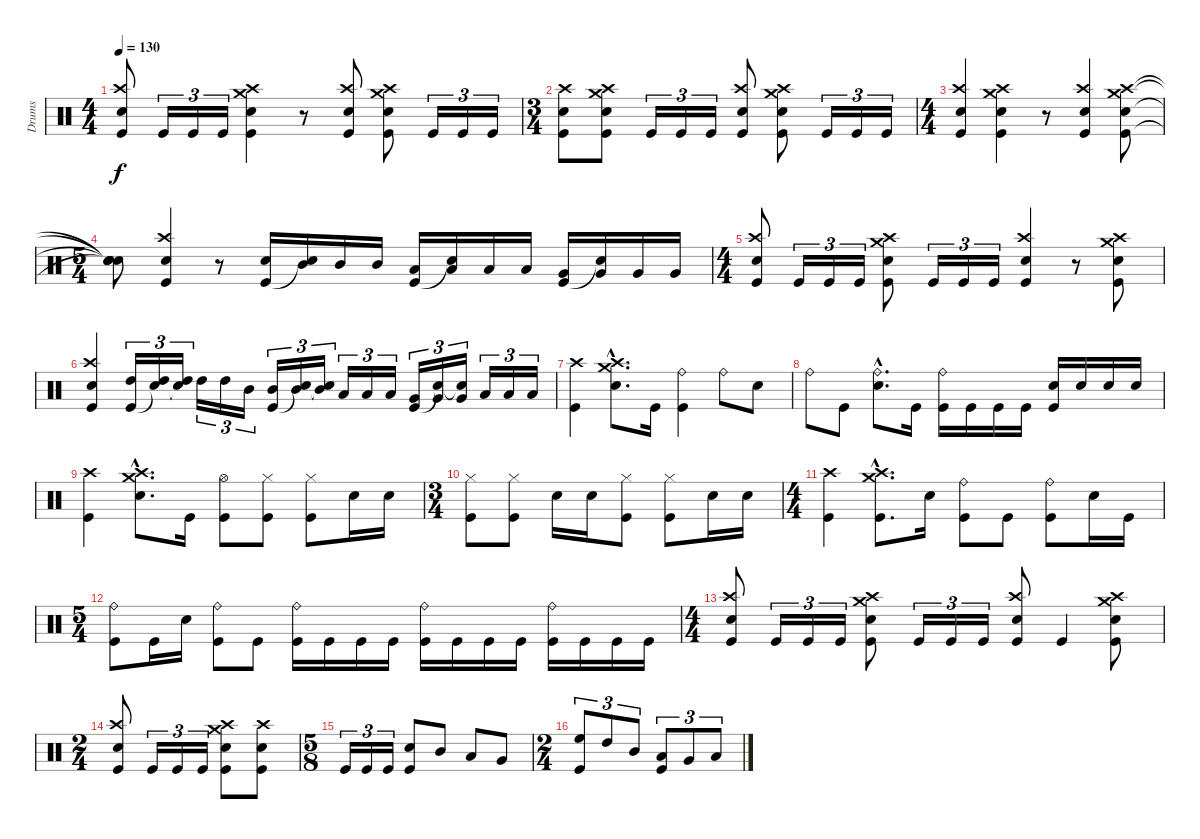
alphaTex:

\track ("Drums" "Drums") {instrument percussion}
\staff {score}
\articulation defaults
\ts (4 4)
\tempo 130
\clef neutral
\ks c
("Electric Snare (hit)" "Crash high (hit)" "Kick (hit)").8{dy f} "Kick (hit)".16{tu (3 2)} "Kick (hit)".16{tu (3 2)} "Kick (hit)".16{tu (3 2)} ("Electric Snare (hit)" "Crash medium (hit)" "Crash high (hit)" "Kick (hit)").4 r.8 ("Electric Snare (hit)" "Crash high (hit)" "Kick (hit)").8 ("Electric Snare (hit)" "Crash medium (hit)" "Crash high (hit)" "Kick (hit)").8 "Kick (hit)".16{tu (3 2)} "Kick (hit)".16{tu (3 2)} "Kick (hit)".16{tu (3 2)} |
\ts (3 4)
("Electric Snare (hit)" "Crash high (hit)" "Kick (hit)").8 ("Electric Snare (hit)" "Crash medium (hit)" "Crash high (hit)" "Kick (hit)").8 "Kick (hit)".16{tu (3 2)} "Kick (hit)".16{tu (3 2)} "Kick (hit)".16{tu (3 2)} ("Electric Snare (hit)" "Crash high (hit)" "Kick (hit)").8 ("Electric Snare (hit)" "Crash medium (hit)" "Crash high (hit)" "Kick (hit)").8 "Kick (hit)".16{tu (3 2)} "Kick (hit)".16{tu (3 2)} "Kick (hit)".16{tu (3 2)} |
\ts (4 4)
("Electric Snare (hit)" "Crash high (hit)" "Kick (hit)").4 ("Electric Snare (hit)" "Crash medium (hit)" "Crash high (hit)" "Kick (hit)").4 r.8 ("Electric Snare (hit)" "Crash high (hit)" "Kick (hit)").4 ("Electric Snare (hit)" "Crash medium (hit)" "Crash high (hit)" "Kick (hit)").8 |
\ts (5 4)
("Snare (hit)"{t} "Snare (hit)"{t} "Snare (hit)"{t} "Snare (hit)"{t}).8 ("Electric Snare (hit)" "Crash high (hit)" "Kick (hit)").4 r.8 ("Electric Snare (hit)" "Kick (hit)").16 ("Mid Tom (hit)" "Snare (hit)"{t}).16 "Mid Tom (hit)".16 "Mid Tom (hit)".16 ("Low Tom (hit)" "Kick (hit)").16 ("Low Tom (hit)" "Snare (hit)"{t}).16 "Low Tom (hit)".16 "Low Tom (hit)".16 ("Very Low Tom (hit)" "Kick (hit)").16 ("Very Low Tom (hit)" "Snare (hit)"{t}).16 "Very Low Tom (hit)".16 "Very Low Tom (hit)".16 |
\ts (4 4)
("Electric Snare (hit)" "Crash high (hit)" "Kick (hit)").8 "Kick (hit)".16{tu (3 2)} "Kick (hit)".16{tu (3 2)} "Kick (hit)".16{tu (3 2)} ("Electric Snare (hit)" "Crash medium (hit)" "Crash high (hit)" "Kick (hit)").8 "Kick (hit)".16{tu (3 2)} "Kick (hit)".16{tu (3 2)} "Kick (hit)".16{tu (3 2)} ("Electric Snare (hit)" "Crash high (hit)" "Kick (hit)").4 r.8 ("Electric Snare (hit)" "Crash medium (hit)" "Crash high (hit)" "Kick (hit)").8 |
("Electric Snare (hit)" "Crash high (hit)" "Kick (hit)").4 ("High Tom (hit)" "Kick (hit)").16{tu (3 2)} ("High Tom (hit)" "Snare (hit)"{t}).16{tu (3 2)} ("High Tom (hit)" "Snare (hit)"{t}).16{tu (3 2)} "High Tom (hit)".16{tu (3 2)} "High Tom (hit)".16{tu (3 2)} "Mid Tom (hit)".16{tu (3 2)} ("Mid Tom (hit)" "Kick (hit)").16{tu (3 2)} ("Mid Tom (hit)" "Snare (hit)"{t}).16{tu (3 2)} ("Mid Tom (hit)" "Snare (hit)"{t}).16{tu (3 2)} "Low Tom (hit)".16{tu (3 2)} "Low Tom (hit)".16{tu (3 2)} "Low Tom (hit)".16{tu (3 2)} ("Very Low Tom (hit)" "Kick (hit)").16{tu (3 2)} ("Very Low Tom (hit)" "Snare (hit)"{t}).16{tu (3 2)} ("Very Low Tom (hit)" "Snare (hit)"{t}).16{tu (3 2)} "Low Floor Tom (hit)".16{tu (3 2)} "Low Floor Tom (hit)".16{tu (3 2)} "Low Floor Tom (hit)".16{tu (3 2)} |
("Crash high (hit)" "Kick (hit)").4 ("Electric Snare (hit)"{hac} "Crash medium (hit)"{hac} "Crash high (hit)"{hac}).8{d} "Kick (hit)".16 ("Ride (bell)" "Kick (hit)").4 "Ride (bell)".8 "Electric Snare (hit)".8 |
"Ride (bell)".8 "Kick (hit)".8 ("Electric Snare (hit)"{hac} "Ride (bell)"{hac}).8{d} "Kick (hit)".16 ("Ride (bell)" "Kick (hit)").16 "Kick (hit)".16 "Kick (hit)".16 "Kick (hit)".16 ("Electric Snare (hit)" "Kick (hit)").16 "Electric Snare (hit)".16 "Electric Snare (hit)".16 "Electric Snare (hit)".16 |
("Crash high (hit)" "Kick (hit)").4 ("Electric Snare (hit)"{hac} "Crash medium (hit)"{hac} "Crash high (hit)"{hac}).8{d} "Kick (hit)".16 ("Hi-Hat (open)" "Kick (hit)").8 ("Hi-Hat (closed)" "Kick (hit)").8 ("Hi-Hat (closed)" "Kick (hit)").8 "Electric Snare (hit)".16 "Electric Snare (hit)".16 |
\ts (3 4)
("Hi-Hat (closed)" "Kick (hit)").8 ("Hi-Hat (closed)" "Kick (hit)").8 "Electric Snare (hit)".16 "Electric Snare (hit)".16 ("Hi-Hat (closed)" "Kick (hit)").8 ("Hi-Hat (closed)" "Kick (hit)").8 "Electric Snare (hit)".16 "Electric Snare (hit)".16 |
\ts (4 4)
("Crash high (hit)" "Kick (hit)").4 ("Crash medium (hit)"{hac} "Crash high (hit)"{hac} "Kick (hit)"{hac}).8{d} "Electric Snare (hit)".16 ("Ride (bell)" "Kick (hit)").8 "Kick (hit)".8 ("Ride (bell)" "Kick (hit)").8 "Electric Snare (hit)".16 "Kick (hit)".16 |
\ts (5 4)
("Ride (bell)" "Kick (hit)").8 "Kick (hit)".16 "Electric Snare (hit)".16 ("Ride (bell)" "Kick (hit)").8 "Kick (hit)".8 ("Ride (bell)" "Kick (hit)").16 "Kick (hit)".16 "Kick (hit)".16 "Kick (hit)".16 ("Ride (bell)" "Kick (hit)").16 "Kick (hit)".16 "Kick (hit)".16 "Kick (hit)".16 ("Ride (bell)" "Kick (hit)").16 "Kick (hit)".16 "Kick (hit)".16 "Kick (hit)".16 |
\ts (4 4)
("Electric Snare (hit)" "Crash high (hit)" "Kick (hit)").8 "Kick (hit)".16{tu (3 2)} "Kick (hit)".16{tu (3 2)} "Kick (hit)".16{tu (3 2)} ("Electric Snare (hit)" "Crash medium (hit)" "Crash high (hit)" "Kick (hit)").8 "Kick (hit)".16{tu (3 2)} "Kick (hit)".16{tu (3 2)} "Kick (hit)".16{tu (3 2)} ("Electric Snare (hit)" "Crash high (hit)" "Kick (hit)").8 "Kick (hit)".4 ("Electric Snare (hit)" "Crash medium (hit)" "Crash high (hit)" "Kick (hit)").8 |
\ts (2 4)
("Electric Snare (hit)" "Crash high (hit)" "Kick (hit)").8 "Kick (hit)".16{tu (3 2)} "Kick (hit)".16{tu (3 2)} "Kick (hit)".16{tu (3 2)} ("Electric Snare (hit)" "Crash medium (hit)" "Crash high (hit)" "Kick (hit)").8 ("Electric Snare (hit)" "Crash high (hit)" "Kick (hit)").8 |
\ts (5 8)
"Kick (hit)".16{tu (3 2)} "Kick (hit)".16{tu (3 2)} "Kick (hit)".16{tu (3 2)} ("Electric Snare (hit)" "Kick (hit)").8 "Mid Tom (hit)".8 "Low Tom (hit)".8 "Very Low Tom (hit)".8 |
\ts (2 4)
("High Floor Tom (hit)" "Kick (hit)").8{tu (3 2)} "High Tom (hit)".8{tu (3 2)} "Mid Tom (hit)".8{tu (3 2)} ("Low Tom (hit)" "Kick (hit)").8{tu (3 2)} "Very Low Tom (hit)".8{tu (3 2)} "Low Floor Tom (hit)".8{tu (3 2)}
